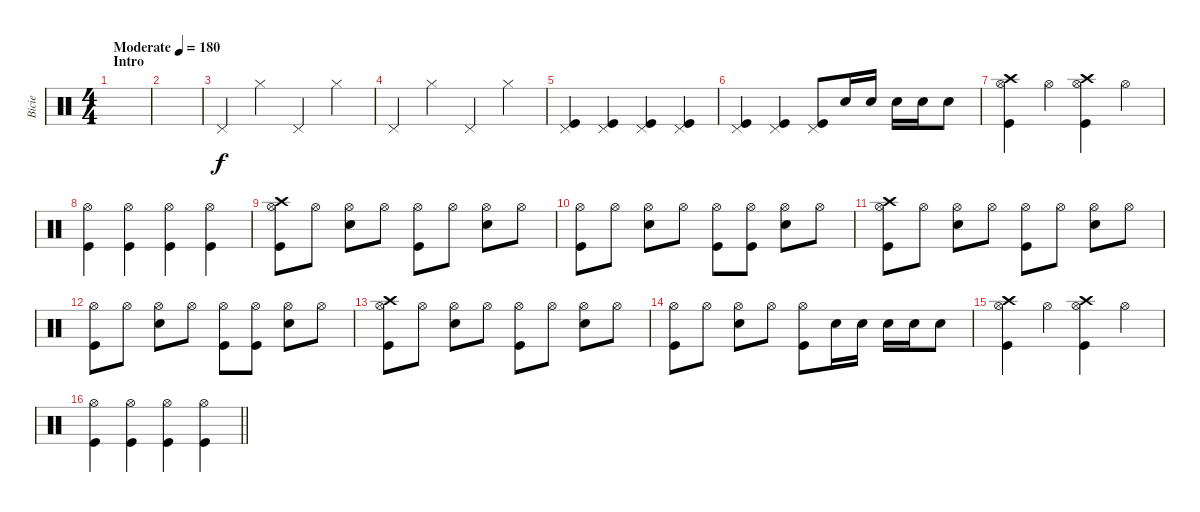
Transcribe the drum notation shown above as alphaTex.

\track ("Bicie" "Bicie") {instrument percussion}
\staff {score}
\articulation defaults
\ts (4 4)
\section ("" "Intro")
\tempo (180 "Moderate")
\clef neutral
\ks c
|
|
"Pedal Hi-Hat (hit)".4 "Hi-Hat (closed)".4 "Pedal Hi-Hat (hit)".4 "Hi-Hat (closed)".4 |
"Pedal Hi-Hat (hit)".4 "Hi-Hat (closed)".4 "Pedal Hi-Hat (hit)".4 "Hi-Hat (closed)".4 |
("Pedal Hi-Hat (hit)" "Kick (hit)").4 ("Pedal Hi-Hat (hit)" "Kick (hit)").4 ("Pedal Hi-Hat (hit)" "Kick (hit)").4 ("Pedal Hi-Hat (hit)" "Kick (hit)").4 |
("Pedal Hi-Hat (hit)" "Kick (hit)").4 ("Pedal Hi-Hat (hit)" "Kick (hit)").4 ("Pedal Hi-Hat (hit)" "Kick (hit)").8 "Snare (hit) 2".16 "Snare (hit) 2".16 "Snare (hit) 2".16 "Snare (hit) 2".16 "Snare (hit) 2".8 |
("Crash high (hit)" "Hi-Hat (open)" "Kick (hit)").4 "Hi-Hat (open)".4 ("Crash high (hit)" "Hi-Hat (open)" "Kick (hit)").4 "Hi-Hat (open)".4 |
("Hi-Hat (open)" "Kick (hit)").4 ("Hi-Hat (open)" "Kick (hit)").4 ("Hi-Hat (open)" "Kick (hit)").4 ("Hi-Hat (open)" "Kick (hit)").4 |
("Crash high (hit)" "Hi-Hat (open)" "Kick (hit)").8 "Hi-Hat (open)".8 ("Hi-Hat (open)" "Snare (hit) 2").8 "Hi-Hat (open)".8 ("Hi-Hat (open)" "Kick (hit)").8 "Hi-Hat (open)".8 ("Hi-Hat (open)" "Snare (hit) 2").8 "Hi-Hat (open)".8 |
("Hi-Hat (open)" "Kick (hit)").8 "Hi-Hat (open)".8 ("Hi-Hat (open)" "Snare (hit) 2").8 "Hi-Hat (open)".8 ("Hi-Hat (open)" "Kick (hit)").8 ("Hi-Hat (open)" "Kick (hit)").8 ("Hi-Hat (open)" "Snare (hit) 2").8 "Hi-Hat (open)".8 |
("Crash high (hit)" "Hi-Hat (open)" "Kick (hit)").8 "Hi-Hat (open)".8 ("Hi-Hat (open)" "Snare (hit) 2").8 "Hi-Hat (open)".8 ("Hi-Hat (open)" "Kick (hit)").8 "Hi-Hat (open)".8 ("Hi-Hat (open)" "Snare (hit) 2").8 "Hi-Hat (open)".8 |
("Hi-Hat (open)" "Kick (hit)").8 "Hi-Hat (open)".8 ("Hi-Hat (open)" "Snare (hit) 2").8 "Hi-Hat (open)".8 ("Hi-Hat (open)" "Kick (hit)").8 ("Hi-Hat (open)" "Kick (hit)").8 ("Hi-Hat (open)" "Snare (hit) 2").8 "Hi-Hat (open)".8 |
("Crash high (hit)" "Hi-Hat (open)" "Kick (hit)").8 "Hi-Hat (open)".8 ("Hi-Hat (open)" "Snare (hit) 2").8 "Hi-Hat (open)".8 ("Hi-Hat (open)" "Kick (hit)").8 "Hi-Hat (open)".8 ("Hi-Hat (open)" "Snare (hit) 2").8 "Hi-Hat (open)".8 |
("Hi-Hat (open)" "Kick (hit)").8 "Hi-Hat (open)".8 ("Hi-Hat (open)" "Snare (hit) 2").8 "Hi-Hat (open)".8 ("Hi-Hat (open)" "Kick (hit)").8 "Snare (hit) 2".16 "Snare (hit) 2".16 "Snare (hit) 2".16 "Snare (hit) 2".16 "Snare (hit) 2".8 |
("Crash high (hit)" "Hi-Hat (open)" "Kick (hit)").4 "Hi-Hat (open)".4 ("Crash high (hit)" "Hi-Hat (open)" "Kick (hit)").4 "Hi-Hat (open)".4 |
\barLineRight lightlight
("Hi-Hat (open)" "Kick (hit)").4 ("Hi-Hat (open)" "Kick (hit)").4 ("Hi-Hat (open)" "Kick (hit)").4 ("Hi-Hat (open)" "Kick (hit)").4
